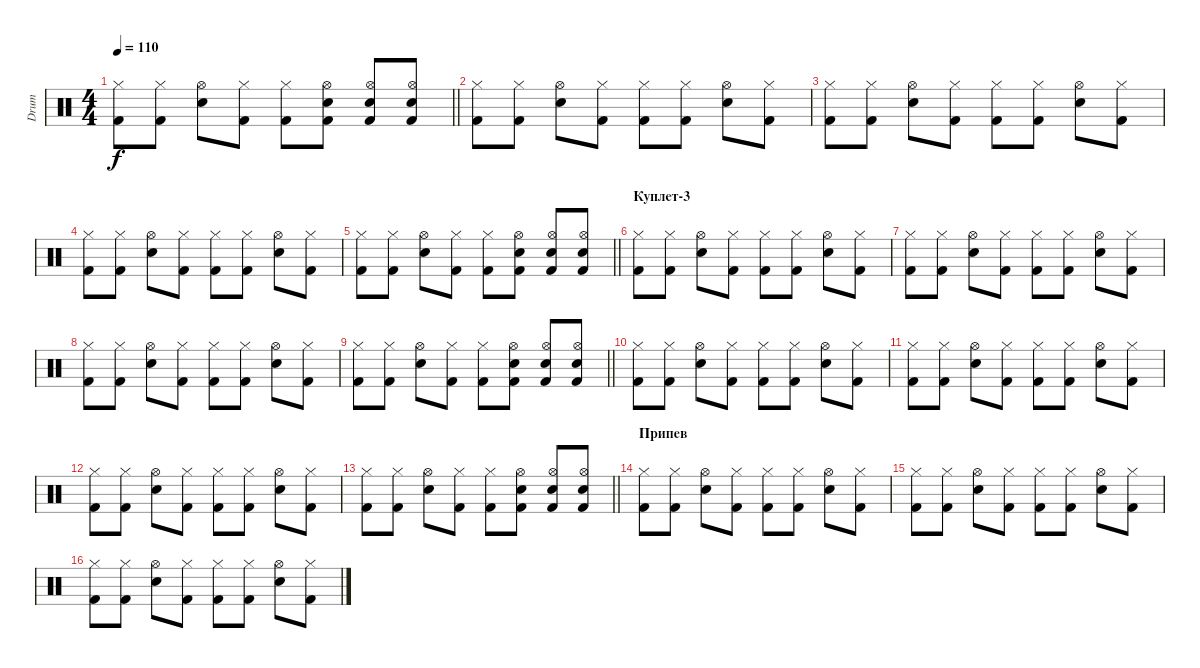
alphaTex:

\track ("Drum" "Drum") {instrument percussion}
\staff {score}
\articulation defaults
\ts (4 4)
\tempo 110
\clef neutral
\barLineRight lightlight
\ks c
("Hi-Hat (closed)" "Kick (hit) 2").8{dy f} ("Hi-Hat (closed)" "Kick (hit) 2").8 ("Hi-Hat (open)" "Snare (hit) 2").8 ("Hi-Hat (closed)" "Kick (hit) 2").8 ("Hi-Hat (closed)" "Kick (hit) 2").8 ("Hi-Hat (open)" "Snare (hit) 2" "Kick (hit) 2").8 ("Hi-Hat (open)" "Snare (hit) 2" "Kick (hit) 2").8 ("Hi-Hat (open)" "Snare (hit) 2" "Kick (hit) 2").8 |
("Hi-Hat (closed)" "Kick (hit) 2").8 ("Hi-Hat (closed)" "Kick (hit) 2").8 ("Hi-Hat (open)" "Snare (hit) 2").8 ("Hi-Hat (closed)" "Kick (hit) 2").8 ("Hi-Hat (closed)" "Kick (hit) 2").8 ("Hi-Hat (closed)" "Kick (hit) 2").8 ("Hi-Hat (open)" "Snare (hit) 2").8 ("Hi-Hat (closed)" "Kick (hit) 2").8 |
("Hi-Hat (closed)" "Kick (hit) 2").8 ("Hi-Hat (closed)" "Kick (hit) 2").8 ("Hi-Hat (open)" "Snare (hit) 2").8 ("Hi-Hat (closed)" "Kick (hit) 2").8 ("Hi-Hat (closed)" "Kick (hit) 2").8 ("Hi-Hat (closed)" "Kick (hit) 2").8 ("Hi-Hat (open)" "Snare (hit) 2").8 ("Hi-Hat (closed)" "Kick (hit) 2").8 |
("Hi-Hat (closed)" "Kick (hit) 2").8 ("Hi-Hat (closed)" "Kick (hit) 2").8 ("Hi-Hat (open)" "Snare (hit) 2").8 ("Hi-Hat (closed)" "Kick (hit) 2").8 ("Hi-Hat (closed)" "Kick (hit) 2").8 ("Hi-Hat (closed)" "Kick (hit) 2").8 ("Hi-Hat (open)" "Snare (hit) 2").8 ("Hi-Hat (closed)" "Kick (hit) 2").8 |
\barLineRight lightlight
("Hi-Hat (closed)" "Kick (hit) 2").8 ("Hi-Hat (closed)" "Kick (hit) 2").8 ("Hi-Hat (open)" "Snare (hit) 2").8 ("Hi-Hat (closed)" "Kick (hit) 2").8 ("Hi-Hat (closed)" "Kick (hit) 2").8 ("Hi-Hat (open)" "Snare (hit) 2" "Kick (hit) 2").8 ("Hi-Hat (open)" "Snare (hit) 2" "Kick (hit) 2").8 ("Hi-Hat (open)" "Snare (hit) 2" "Kick (hit) 2").8 |
\section ("" "Куплет-3")
("Hi-Hat (closed)" "Kick (hit) 2").8 ("Hi-Hat (closed)" "Kick (hit) 2").8 ("Hi-Hat (open)" "Snare (hit) 2").8 ("Hi-Hat (closed)" "Kick (hit) 2").8 ("Hi-Hat (closed)" "Kick (hit) 2").8 ("Hi-Hat (closed)" "Kick (hit) 2").8 ("Hi-Hat (open)" "Snare (hit) 2").8 ("Hi-Hat (closed)" "Kick (hit) 2").8 |
("Hi-Hat (closed)" "Kick (hit) 2").8 ("Hi-Hat (closed)" "Kick (hit) 2").8 ("Hi-Hat (open)" "Snare (hit) 2").8 ("Hi-Hat (closed)" "Kick (hit) 2").8 ("Hi-Hat (closed)" "Kick (hit) 2").8 ("Hi-Hat (closed)" "Kick (hit) 2").8 ("Hi-Hat (open)" "Snare (hit) 2").8 ("Hi-Hat (closed)" "Kick (hit) 2").8 |
("Hi-Hat (closed)" "Kick (hit) 2").8 ("Hi-Hat (closed)" "Kick (hit) 2").8 ("Hi-Hat (open)" "Snare (hit) 2").8 ("Hi-Hat (closed)" "Kick (hit) 2").8 ("Hi-Hat (closed)" "Kick (hit) 2").8 ("Hi-Hat (closed)" "Kick (hit) 2").8 ("Hi-Hat (open)" "Snare (hit) 2").8 ("Hi-Hat (closed)" "Kick (hit) 2").8 |
\barLineRight lightlight
("Hi-Hat (closed)" "Kick (hit) 2").8 ("Hi-Hat (closed)" "Kick (hit) 2").8 ("Hi-Hat (open)" "Snare (hit) 2").8 ("Hi-Hat (closed)" "Kick (hit) 2").8 ("Hi-Hat (closed)" "Kick (hit) 2").8 ("Hi-Hat (open)" "Snare (hit) 2" "Kick (hit) 2").8 ("Hi-Hat (open)" "Snare (hit) 2" "Kick (hit) 2").8 ("Hi-Hat (open)" "Snare (hit) 2" "Kick (hit) 2").8 |
("Hi-Hat (closed)" "Kick (hit) 2").8 ("Hi-Hat (closed)" "Kick (hit) 2").8 ("Hi-Hat (open)" "Snare (hit) 2").8 ("Hi-Hat (closed)" "Kick (hit) 2").8 ("Hi-Hat (closed)" "Kick (hit) 2").8 ("Hi-Hat (closed)" "Kick (hit) 2").8 ("Hi-Hat (open)" "Snare (hit) 2").8 ("Hi-Hat (closed)" "Kick (hit) 2").8 |
("Hi-Hat (closed)" "Kick (hit) 2").8 ("Hi-Hat (closed)" "Kick (hit) 2").8 ("Hi-Hat (open)" "Snare (hit) 2").8 ("Hi-Hat (closed)" "Kick (hit) 2").8 ("Hi-Hat (closed)" "Kick (hit) 2").8 ("Hi-Hat (closed)" "Kick (hit) 2").8 ("Hi-Hat (open)" "Snare (hit) 2").8 ("Hi-Hat (closed)" "Kick (hit) 2").8 |
("Hi-Hat (closed)" "Kick (hit) 2").8 ("Hi-Hat (closed)" "Kick (hit) 2").8 ("Hi-Hat (open)" "Snare (hit) 2").8 ("Hi-Hat (closed)" "Kick (hit) 2").8 ("Hi-Hat (closed)" "Kick (hit) 2").8 ("Hi-Hat (closed)" "Kick (hit) 2").8 ("Hi-Hat (open)" "Snare (hit) 2").8 ("Hi-Hat (closed)" "Kick (hit) 2").8 |
\barLineRight lightlight
("Hi-Hat (closed)" "Kick (hit) 2").8 ("Hi-Hat (closed)" "Kick (hit) 2").8 ("Hi-Hat (open)" "Snare (hit) 2").8 ("Hi-Hat (closed)" "Kick (hit) 2").8 ("Hi-Hat (closed)" "Kick (hit) 2").8 ("Hi-Hat (open)" "Snare (hit) 2" "Kick (hit) 2").8 ("Hi-Hat (open)" "Snare (hit) 2" "Kick (hit) 2").8 ("Hi-Hat (open)" "Snare (hit) 2" "Kick (hit) 2").8 |
\section ("" "Припев")
("Hi-Hat (closed)" "Kick (hit) 2").8 ("Hi-Hat (closed)" "Kick (hit) 2").8 ("Hi-Hat (open)" "Snare (hit) 2").8 ("Hi-Hat (closed)" "Kick (hit) 2").8 ("Hi-Hat (closed)" "Kick (hit) 2").8 ("Hi-Hat (closed)" "Kick (hit) 2").8 ("Hi-Hat (open)" "Snare (hit) 2").8 ("Hi-Hat (closed)" "Kick (hit) 2").8 |
("Hi-Hat (closed)" "Kick (hit) 2").8 ("Hi-Hat (closed)" "Kick (hit) 2").8 ("Hi-Hat (open)" "Snare (hit) 2").8 ("Hi-Hat (closed)" "Kick (hit) 2").8 ("Hi-Hat (closed)" "Kick (hit) 2").8 ("Hi-Hat (closed)" "Kick (hit) 2").8 ("Hi-Hat (open)" "Snare (hit) 2").8 ("Hi-Hat (closed)" "Kick (hit) 2").8 |
("Hi-Hat (closed)" "Kick (hit) 2").8 ("Hi-Hat (closed)" "Kick (hit) 2").8 ("Hi-Hat (open)" "Snare (hit) 2").8 ("Hi-Hat (closed)" "Kick (hit) 2").8 ("Hi-Hat (closed)" "Kick (hit) 2").8 ("Hi-Hat (closed)" "Kick (hit) 2").8 ("Hi-Hat (open)" "Snare (hit) 2").8 ("Hi-Hat (closed)" "Kick (hit) 2").8
